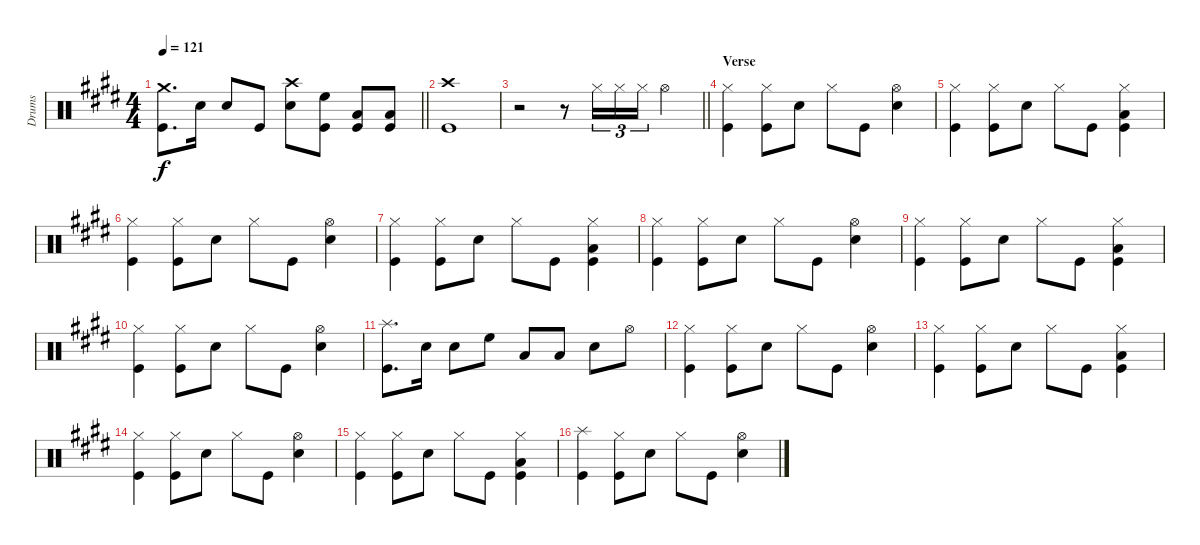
\track ("Drums" "Drums") {instrument percussion}
\staff {score}
\articulation defaults
\ts (4 4)
\tempo 121
\clef neutral
\barLineRight lightlight
\ks e
("Crash medium (hit)" "Kick (hit)").8{d dy f} "Snare (hit) 2".16 "Snare (hit) 2".8 "Kick (hit)".8 ("Crash high (hit)" "Snare (hit) 2").8 ("High Floor Tom (hit)" "Kick (hit)").8 ("Low Tom (hit)" "Kick (hit)").8 ("Low Floor Tom (hit)" "Kick (hit)").8 |
("Crash high (hit)" "Kick (hit)").1 |
\barLineRight lightlight
r.2 r.8 "Hi-Hat (closed)".16{tu (3 2)} "Hi-Hat (closed)".16{tu (3 2)} "Hi-Hat (closed)".16{tu (3 2)} "Hi-Hat (open)".4 |
\section ("" "Verse")
("Hi-Hat (closed)" "Kick (hit)").4 ("Hi-Hat (closed)" "Kick (hit)").8 "Snare (hit) 2".8 "Hi-Hat (closed)".8 "Kick (hit)".8 ("Hi-Hat (open)" "Snare (hit) 2").4 |
("Hi-Hat (closed)" "Kick (hit)").4 ("Hi-Hat (closed)" "Kick (hit)").8 "Snare (hit) 2".8 "Hi-Hat (closed)".8 "Kick (hit)".8 ("Hi-Hat (closed)" "Low Floor Tom (hit)" "Kick (hit)").4 |
("Hi-Hat (closed)" "Kick (hit)").4 ("Hi-Hat (closed)" "Kick (hit)").8 "Snare (hit) 2".8 "Hi-Hat (closed)".8 "Kick (hit)".8 ("Hi-Hat (open)" "Snare (hit) 2").4 |
("Hi-Hat (closed)" "Kick (hit)").4 ("Hi-Hat (closed)" "Kick (hit)").8 "Snare (hit) 2".8 "Hi-Hat (closed)".8 "Kick (hit)".8 ("Hi-Hat (closed)" "Low Floor Tom (hit)" "Kick (hit)").4 |
("Hi-Hat (closed)" "Kick (hit)").4 ("Hi-Hat (closed)" "Kick (hit)").8 "Snare (hit) 2".8 "Hi-Hat (closed)".8 "Kick (hit)".8 ("Hi-Hat (open)" "Snare (hit) 2").4 |
("Hi-Hat (closed)" "Kick (hit)").4 ("Hi-Hat (closed)" "Kick (hit)").8 "Snare (hit) 2".8 "Hi-Hat (closed)".8 "Kick (hit)".8 ("Hi-Hat (closed)" "Low Floor Tom (hit)" "Kick (hit)").4 |
("Hi-Hat (closed)" "Kick (hit)").4 ("Hi-Hat (closed)" "Kick (hit)").8 "Snare (hit) 2".8 "Hi-Hat (closed)".8 "Kick (hit)".8 ("Hi-Hat (open)" "Snare (hit) 2").4 |
("Splash (hit)" "Kick (hit)").8{d} "Snare (hit) 2".16 "Snare (hit) 2".8 "High Floor Tom (hit)".8 "Low Tom (hit)".8 "Low Floor Tom (hit)".8 "Snare (hit) 2".8 "Hi-Hat (open)".8 |
("Hi-Hat (closed)" "Kick (hit)").4 ("Hi-Hat (closed)" "Kick (hit)").8 "Snare (hit) 2".8 "Hi-Hat (closed)".8 "Kick (hit)".8 ("Hi-Hat (open)" "Snare (hit) 2").4 |
("Hi-Hat (closed)" "Kick (hit)").4 ("Hi-Hat (closed)" "Kick (hit)").8 "Snare (hit) 2".8 "Hi-Hat (closed)".8 "Kick (hit)".8 ("Hi-Hat (closed)" "Low Floor Tom (hit)" "Kick (hit)").4 |
("Hi-Hat (closed)" "Kick (hit)").4 ("Hi-Hat (closed)" "Kick (hit)").8 "Snare (hit) 2".8 "Hi-Hat (closed)".8 "Kick (hit)".8 ("Hi-Hat (open)" "Snare (hit) 2").4 |
("Hi-Hat (closed)" "Kick (hit)").4 ("Hi-Hat (closed)" "Kick (hit)").8 "Snare (hit) 2".8 "Hi-Hat (closed)".8 "Kick (hit)".8 ("Hi-Hat (closed)" "Low Floor Tom (hit)" "Kick (hit)").4 |
("Splash (hit)" "Kick (hit)").4 ("Hi-Hat (closed)" "Kick (hit)").8 "Snare (hit) 2".8 "Hi-Hat (closed)".8 "Kick (hit)".8 ("Hi-Hat (open)" "Snare (hit) 2").4
